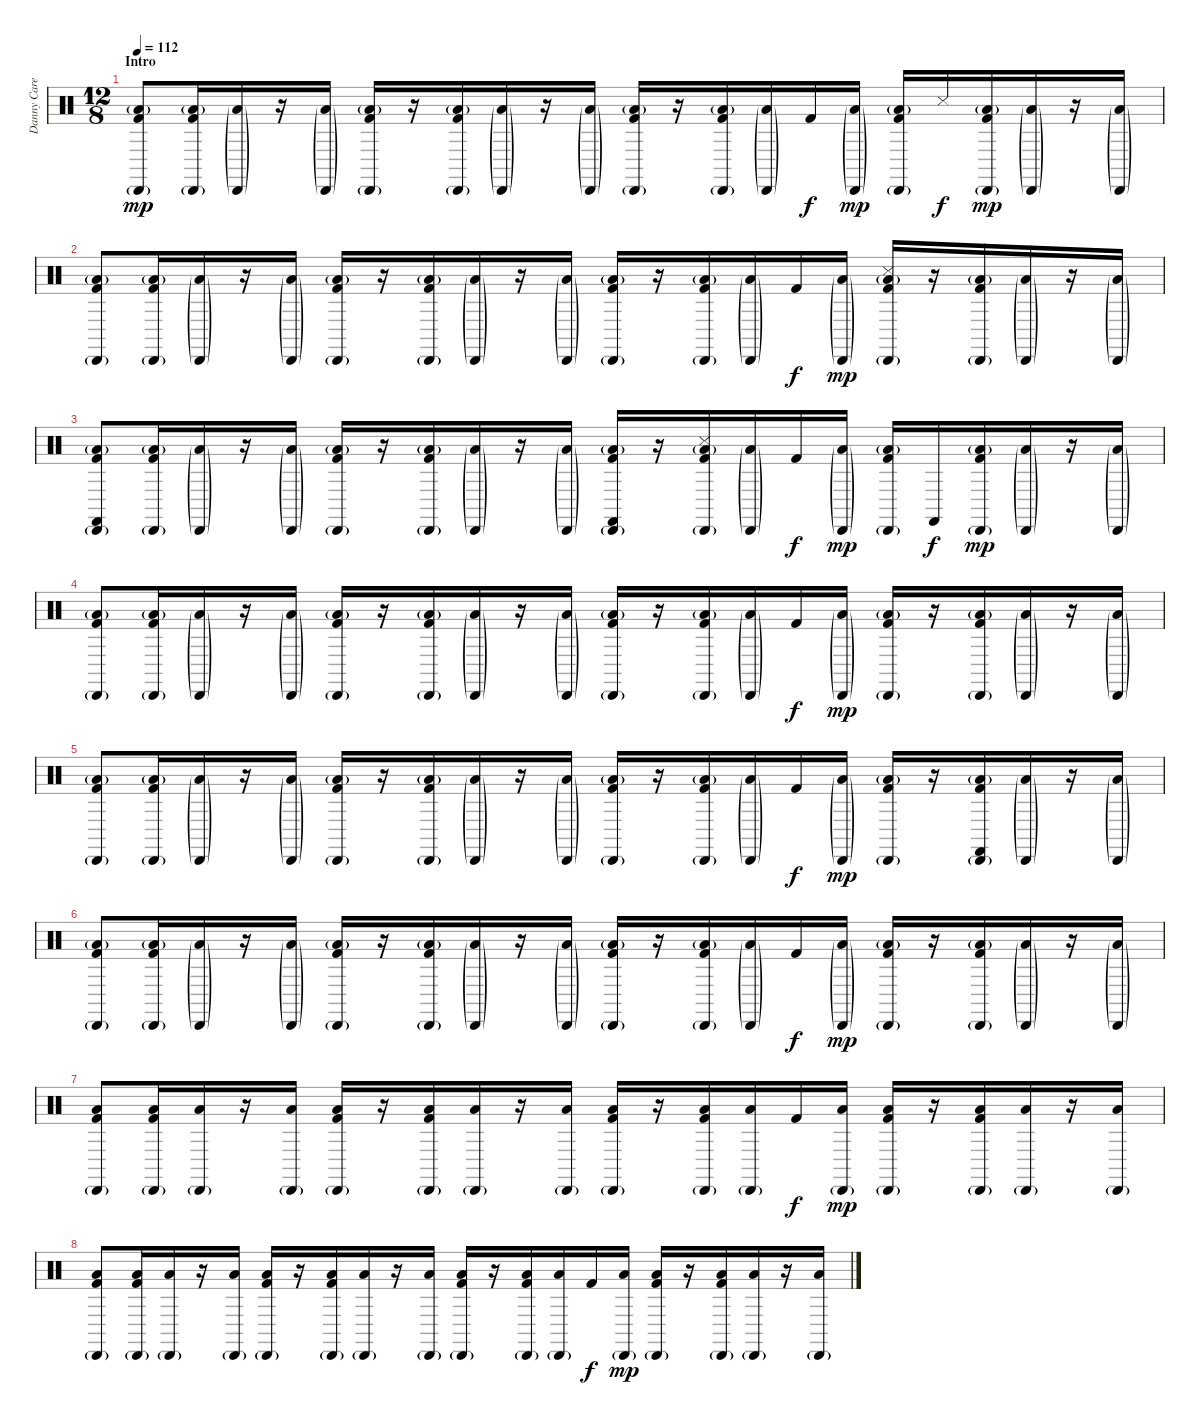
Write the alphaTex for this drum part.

\track ("Danny Carey" "Danny Care") {instrument percussion}
\staff {score}
\articulation defaults
\ts (12 8)
\section ("" "Intro")
\tempo 112
\clef neutral
\ks c
("Low Floor Tom (hit)"{g} "Cabasa (hit)"{g} "Kick (hit) 2").8{dy mp volume 4} ("Low Floor Tom (hit)"{g} "Cabasa (hit)"{g} "Kick (hit) 2").16 ("Low Floor Tom (hit)"{g} "Cabasa (hit)"{g}).16 r.16 ("Low Floor Tom (hit)"{g} "Cabasa (hit)"{g}).16 ("Low Floor Tom (hit)"{g} "Cabasa (hit)"{g} "Kick (hit) 2").16 r.16 ("Low Floor Tom (hit)"{g} "Cabasa (hit)"{g} "Kick (hit) 2").16 ("Low Floor Tom (hit)"{g} "Cabasa (hit)"{g}).16 r.16 ("Low Floor Tom (hit)"{g} "Cabasa (hit)"{g}).16 ("Low Floor Tom (hit)"{g} "Cabasa (hit)"{g} "Kick (hit) 2").16 r.16 ("Low Floor Tom (hit)"{g} "Cabasa (hit)"{g} "Kick (hit) 2").16 ("Low Floor Tom (hit)"{g} "Cabasa (hit)"{g}).16 "Kick (hit) 2".16{dy f} ("Low Floor Tom (hit)"{g} "Cabasa (hit)"{g}).16{dy mp} ("Low Floor Tom (hit)"{g} "Cabasa (hit)"{g} "Kick (hit) 2").16 "Snare (side stick) 3".16{dy f} ("Low Floor Tom (hit)"{g} "Cabasa (hit)"{g} "Kick (hit) 2").16{dy mp} ("Low Floor Tom (hit)"{g} "Cabasa (hit)"{g}).16 r.16 ("Low Floor Tom (hit)"{g} "Cabasa (hit)"{g}).16 |
("Low Floor Tom (hit)"{g} "Cabasa (hit)"{g} "Kick (hit) 2").8 ("Low Floor Tom (hit)"{g} "Cabasa (hit)"{g} "Kick (hit) 2").16 ("Low Floor Tom (hit)"{g} "Cabasa (hit)"{g}).16 r.16 ("Low Floor Tom (hit)"{g} "Cabasa (hit)"{g}).16 ("Low Floor Tom (hit)"{g} "Cabasa (hit)"{g} "Kick (hit) 2").16 r.16 ("Low Floor Tom (hit)"{g} "Cabasa (hit)"{g} "Kick (hit) 2").16 ("Low Floor Tom (hit)"{g} "Cabasa (hit)"{g}).16 r.16 ("Low Floor Tom (hit)"{g} "Cabasa (hit)"{g}).16 ("Low Floor Tom (hit)"{g} "Cabasa (hit)"{g} "Kick (hit) 2").16 r.16 ("Low Floor Tom (hit)"{g} "Cabasa (hit)"{g} "Kick (hit) 2").16 ("Low Floor Tom (hit)"{g} "Cabasa (hit)"{g}).16 "Kick (hit) 2".16{dy f} ("Low Floor Tom (hit)"{g} "Cabasa (hit)"{g}).16{dy mp} ("Low Floor Tom (hit)"{g} "Cabasa (hit)"{g} "Snare (side stick) 3" "Kick (hit) 2").16 r.16 ("Low Floor Tom (hit)"{g} "Cabasa (hit)"{g} "Kick (hit) 2").16 ("Low Floor Tom (hit)"{g} "Cabasa (hit)"{g}).16 r.16 ("Low Floor Tom (hit)"{g} "Cabasa (hit)"{g}).16 |
("Low Floor Tom (hit)"{g} "Cabasa (hit)"{g} "Castanets (hit)" "Kick (hit) 2").8{volume 6} ("Low Floor Tom (hit)"{g} "Cabasa (hit)"{g} "Kick (hit) 2").16 ("Low Floor Tom (hit)"{g} "Cabasa (hit)"{g}).16 r.16 ("Low Floor Tom (hit)"{g} "Cabasa (hit)"{g}).16 ("Low Floor Tom (hit)"{g} "Cabasa (hit)"{g} "Kick (hit) 2").16 r.16 ("Low Floor Tom (hit)"{g} "Cabasa (hit)"{g} "Kick (hit) 2").16 ("Low Floor Tom (hit)"{g} "Cabasa (hit)"{g}).16 r.16 ("Low Floor Tom (hit)"{g} "Cabasa (hit)"{g}).16 ("Low Floor Tom (hit)"{g} "Cabasa (hit)"{g} "Castanets (hit)" "Kick (hit) 2").16 r.16 ("Low Floor Tom (hit)"{g} "Cabasa (hit)"{g} "Snare (side stick) 3" "Kick (hit) 2").16 ("Low Floor Tom (hit)"{g} "Cabasa (hit)"{g}).16 "Kick (hit) 2".16{dy f} ("Low Floor Tom (hit)"{g} "Cabasa (hit)"{g}).16{dy mp} ("Low Floor Tom (hit)"{g} "Cabasa (hit)"{g} "Kick (hit) 2").16 "Castanets (hit)".16{dy f} ("Low Floor Tom (hit)"{g} "Cabasa (hit)"{g} "Kick (hit) 2").16{dy mp} ("Low Floor Tom (hit)"{g} "Cabasa (hit)"{g}).16 r.16 ("Low Floor Tom (hit)"{g} "Cabasa (hit)"{g}).16 |
("Low Floor Tom (hit)"{g} "Cabasa (hit)"{g} "Kick (hit) 2").8{volume 8} ("Low Floor Tom (hit)"{g} "Cabasa (hit)"{g} "Kick (hit) 2").16 ("Low Floor Tom (hit)"{g} "Cabasa (hit)"{g}).16 r.16 ("Low Floor Tom (hit)"{g} "Cabasa (hit)"{g}).16 ("Low Floor Tom (hit)"{g} "Cabasa (hit)"{g} "Kick (hit) 2").16 r.16 ("Low Floor Tom (hit)"{g} "Cabasa (hit)"{g} "Kick (hit) 2").16 ("Low Floor Tom (hit)"{g} "Cabasa (hit)"{g}).16 r.16 ("Low Floor Tom (hit)"{g} "Cabasa (hit)"{g}).16 ("Low Floor Tom (hit)"{g} "Cabasa (hit)"{g} "Kick (hit) 2").16 r.16 ("Low Floor Tom (hit)"{g} "Cabasa (hit)"{g} "Kick (hit) 2").16 ("Low Floor Tom (hit)"{g} "Cabasa (hit)"{g}).16 "Kick (hit) 2".16{dy f} ("Low Floor Tom (hit)"{g} "Cabasa (hit)"{g}).16{dy mp} ("Low Floor Tom (hit)"{g} "Cabasa (hit)"{g} "Kick (hit) 2").16 r.16 ("Low Floor Tom (hit)"{g} "Cabasa (hit)"{g} "Kick (hit) 2").16 ("Low Floor Tom (hit)"{g} "Cabasa (hit)"{g}).16 r.16 ("Low Floor Tom (hit)"{g} "Cabasa (hit)"{g}).16 |
("Low Floor Tom (hit)"{g} "Cabasa (hit)"{g} "Kick (hit) 2").8 ("Low Floor Tom (hit)"{g} "Cabasa (hit)"{g} "Kick (hit) 2").16 ("Low Floor Tom (hit)"{g} "Cabasa (hit)"{g}).16 r.16 ("Low Floor Tom (hit)"{g} "Cabasa (hit)"{g}).16 ("Low Floor Tom (hit)"{g} "Cabasa (hit)"{g} "Kick (hit) 2").16 r.16 ("Low Floor Tom (hit)"{g} "Cabasa (hit)"{g} "Kick (hit) 2").16 ("Low Floor Tom (hit)"{g} "Cabasa (hit)"{g}).16 r.16 ("Low Floor Tom (hit)"{g} "Cabasa (hit)"{g}).16 ("Low Floor Tom (hit)"{g} "Cabasa (hit)"{g} "Kick (hit) 2").16 r.16 ("Low Floor Tom (hit)"{g} "Cabasa (hit)"{g} "Kick (hit) 2").16 ("Low Floor Tom (hit)"{g} "Cabasa (hit)"{g}).16 "Kick (hit) 2".16{dy f} ("Low Floor Tom (hit)"{g} "Cabasa (hit)"{g}).16{dy mp} ("Low Floor Tom (hit)"{g} "Cabasa (hit)"{g} "Kick (hit) 2").16 r.16 ("Low Floor Tom (hit)"{g} "Cabasa (hit)"{g} "Castanets (hit)" "Kick (hit) 2").16 ("Low Floor Tom (hit)"{g} "Cabasa (hit)"{g}).16 r.16 ("Low Floor Tom (hit)"{g} "Cabasa (hit)"{g}).16 |
("Low Floor Tom (hit)"{g} "Cabasa (hit)"{g} "Kick (hit) 2").8{volume 16} ("Low Floor Tom (hit)"{g} "Cabasa (hit)"{g} "Kick (hit) 2").16 ("Low Floor Tom (hit)"{g} "Cabasa (hit)"{g}).16 r.16 ("Low Floor Tom (hit)"{g} "Cabasa (hit)"{g}).16 ("Low Floor Tom (hit)"{g} "Cabasa (hit)"{g} "Kick (hit) 2").16 r.16 ("Low Floor Tom (hit)"{g} "Cabasa (hit)"{g} "Kick (hit) 2").16 ("Low Floor Tom (hit)"{g} "Cabasa (hit)"{g}).16 r.16 ("Low Floor Tom (hit)"{g} "Cabasa (hit)"{g}).16 ("Low Floor Tom (hit)"{g} "Cabasa (hit)"{g} "Kick (hit) 2").16 r.16 ("Low Floor Tom (hit)"{g} "Cabasa (hit)"{g} "Kick (hit) 2").16 ("Low Floor Tom (hit)"{g} "Cabasa (hit)"{g}).16 "Kick (hit) 2".16{dy f} ("Low Floor Tom (hit)"{g} "Cabasa (hit)"{g}).16{dy mp} ("Low Floor Tom (hit)"{g} "Cabasa (hit)"{g} "Kick (hit) 2").16 r.16 ("Low Floor Tom (hit)"{g} "Cabasa (hit)"{g} "Kick (hit) 2").16 ("Low Floor Tom (hit)"{g} "Cabasa (hit)"{g}).16 r.16 ("Low Floor Tom (hit)"{g} "Cabasa (hit)"{g}).16 |
("Low Floor Tom (hit)" "Cabasa (hit)"{g} "Kick (hit) 2").8 ("Low Floor Tom (hit)" "Cabasa (hit)"{g} "Kick (hit) 2").16 ("Low Floor Tom (hit)" "Cabasa (hit)"{g}).16 r.16 ("Low Floor Tom (hit)" "Cabasa (hit)"{g}).16 ("Low Floor Tom (hit)" "Cabasa (hit)"{g} "Kick (hit) 2").16 r.16 ("Low Floor Tom (hit)" "Cabasa (hit)"{g} "Kick (hit) 2").16 ("Low Floor Tom (hit)" "Cabasa (hit)"{g}).16 r.16 ("Low Floor Tom (hit)" "Cabasa (hit)"{g}).16 ("Low Floor Tom (hit)" "Cabasa (hit)"{g} "Kick (hit) 2").16 r.16 ("Low Floor Tom (hit)" "Cabasa (hit)"{g} "Kick (hit) 2").16 ("Low Floor Tom (hit)" "Cabasa (hit)"{g}).16 "Kick (hit) 2".16{dy f} ("Low Floor Tom (hit)" "Cabasa (hit)"{g}).16{dy mp} ("Low Floor Tom (hit)" "Cabasa (hit)"{g} "Kick (hit) 2").16 r.16 ("Low Floor Tom (hit)" "Cabasa (hit)"{g} "Kick (hit) 2").16 ("Low Floor Tom (hit)" "Cabasa (hit)"{g}).16 r.16 ("Low Floor Tom (hit)" "Cabasa (hit)"{g}).16 |
("Low Floor Tom (hit)" "Cabasa (hit)"{g} "Kick (hit) 2").8 ("Low Floor Tom (hit)" "Cabasa (hit)"{g} "Kick (hit) 2").16 ("Low Floor Tom (hit)" "Cabasa (hit)"{g}).16 r.16 ("Low Floor Tom (hit)" "Cabasa (hit)"{g}).16 ("Low Floor Tom (hit)" "Cabasa (hit)"{g} "Kick (hit) 2").16 r.16 ("Low Floor Tom (hit)" "Cabasa (hit)"{g} "Kick (hit) 2").16 ("Low Floor Tom (hit)" "Cabasa (hit)"{g}).16 r.16 ("Low Floor Tom (hit)" "Cabasa (hit)"{g}).16 ("Low Floor Tom (hit)" "Cabasa (hit)"{g} "Kick (hit) 2").16 r.16 ("Low Floor Tom (hit)" "Cabasa (hit)"{g} "Kick (hit) 2").16 ("Low Floor Tom (hit)" "Cabasa (hit)"{g}).16 "Kick (hit) 2".16{dy f} ("Low Floor Tom (hit)" "Cabasa (hit)"{g}).16{dy mp} ("Low Floor Tom (hit)" "Cabasa (hit)"{g} "Kick (hit) 2").16 r.16 ("Low Floor Tom (hit)" "Cabasa (hit)"{g} "Kick (hit) 2").16 ("Low Floor Tom (hit)" "Cabasa (hit)"{g}).16 r.16 ("Low Floor Tom (hit)" "Cabasa (hit)"{g}).16
